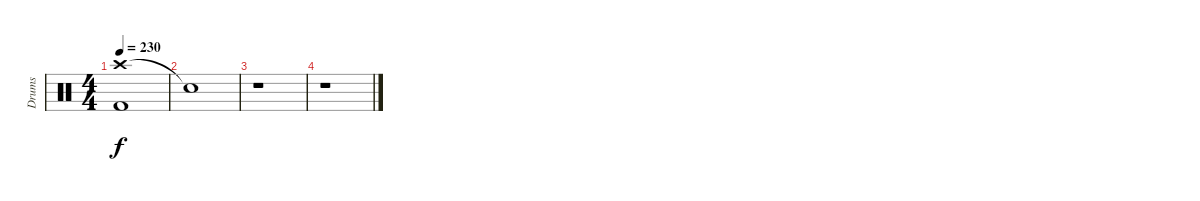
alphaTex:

\track ("Drums" "Drums") {instrument percussion}
\staff {score}
\articulation defaults
\ts (4 4)
\tempo 230
\clef neutral
\ks c
("Crash high (hit)" "Kick (hit) 2").1{dy f} |
"Snare (hit)"{t}.1 |
r.1 |
r.1
